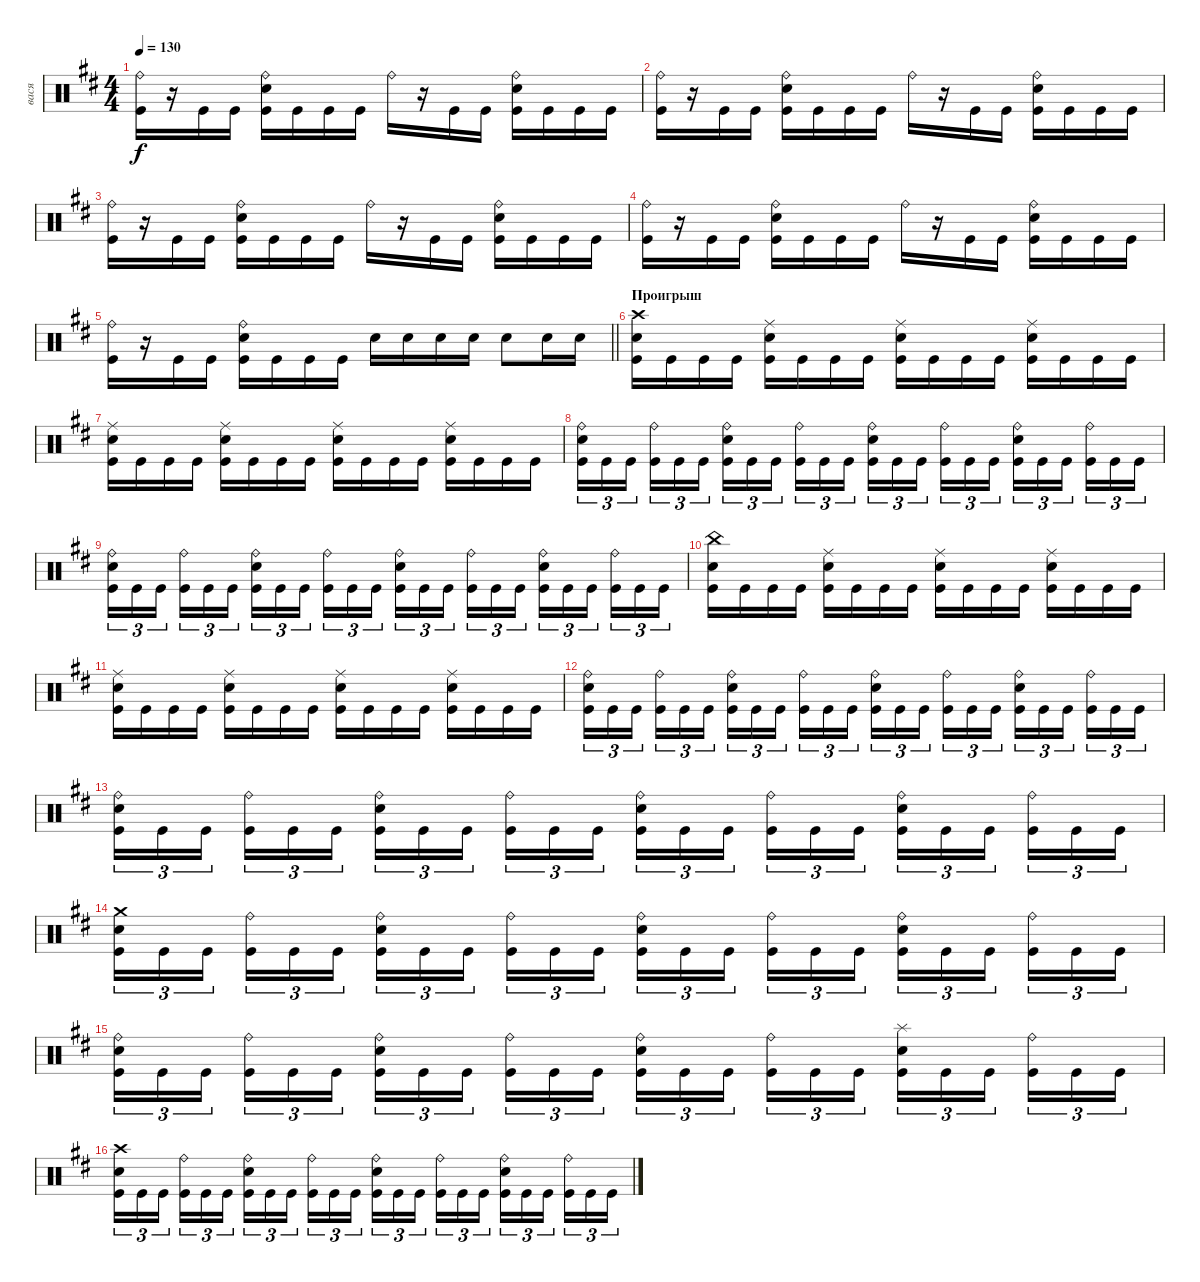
\track ("вася" "вася") {instrument percussion}
\staff {score}
\articulation defaults
\ts (4 4)
\tempo 130
\clef neutral
\ks bminor
("Ride (bell)" "Kick (hit)").16{dy f} r.16 "Kick (hit)".16 "Kick (hit)".16 ("Ride (bell)" "Electric Snare (hit)" "Kick (hit)").16 "Kick (hit)".16 "Kick (hit)".16 "Kick (hit)".16 "Ride (bell)".16 r.16 "Kick (hit)".16 "Kick (hit)".16 ("Ride (bell)" "Electric Snare (hit)" "Kick (hit)").16 "Kick (hit)".16 "Kick (hit)".16 "Kick (hit)".16 |
("Ride (bell)" "Kick (hit)").16 r.16 "Kick (hit)".16 "Kick (hit)".16 ("Ride (bell)" "Electric Snare (hit)" "Kick (hit)").16 "Kick (hit)".16 "Kick (hit)".16 "Kick (hit)".16 "Ride (bell)".16 r.16 "Kick (hit)".16 "Kick (hit)".16 ("Ride (bell)" "Electric Snare (hit)" "Kick (hit)").16 "Kick (hit)".16 "Kick (hit)".16 "Kick (hit)".16 |
("Ride (bell)" "Kick (hit)").16 r.16 "Kick (hit)".16 "Kick (hit)".16 ("Ride (bell)" "Electric Snare (hit)" "Kick (hit)").16 "Kick (hit)".16 "Kick (hit)".16 "Kick (hit)".16 "Ride (bell)".16 r.16 "Kick (hit)".16 "Kick (hit)".16 ("Ride (bell)" "Electric Snare (hit)" "Kick (hit)").16 "Kick (hit)".16 "Kick (hit)".16 "Kick (hit)".16 |
("Ride (bell)" "Kick (hit)").16 r.16 "Kick (hit)".16 "Kick (hit)".16 ("Ride (bell)" "Electric Snare (hit)" "Kick (hit)").16 "Kick (hit)".16 "Kick (hit)".16 "Kick (hit)".16 "Ride (bell)".16 r.16 "Kick (hit)".16 "Kick (hit)".16 ("Ride (bell)" "Electric Snare (hit)" "Kick (hit)").16 "Kick (hit)".16 "Kick (hit)".16 "Kick (hit)".16 |
\barLineRight lightlight
("Ride (bell)" "Kick (hit)").16 r.16 "Kick (hit)".16 "Kick (hit)".16 ("Ride (bell)" "Electric Snare (hit)" "Kick (hit)").16 "Kick (hit)".16 "Kick (hit)".16 "Kick (hit)".16 "Electric Snare (hit)".16 "Electric Snare (hit)".16 "Electric Snare (hit)".16 "Electric Snare (hit)".16 "Electric Snare (hit)".8 "Electric Snare (hit)".16 "Electric Snare (hit)".16 |
\section ("" "Проигрыш")
("Crash high (hit)" "Electric Snare (hit)" "Kick (hit)").16 "Kick (hit)".16 "Kick (hit)".16 "Kick (hit)".16 ("Ride (middle)" "Electric Snare (hit)" "Kick (hit)").16 "Kick (hit)".16 "Kick (hit)".16 "Kick (hit)".16 ("Ride (middle)" "Electric Snare (hit)" "Kick (hit)").16 "Kick (hit)".16 "Kick (hit)".16 "Kick (hit)".16 ("Ride (middle)" "Electric Snare (hit)" "Kick (hit)").16 "Kick (hit)".16 "Kick (hit)".16 "Kick (hit)".16 |
("Ride (middle)" "Electric Snare (hit)" "Kick (hit)").16 "Kick (hit)".16 "Kick (hit)".16 "Kick (hit)".16 ("Ride (middle)" "Electric Snare (hit)" "Kick (hit)").16 "Kick (hit)".16 "Kick (hit)".16 "Kick (hit)".16 ("Ride (middle)" "Electric Snare (hit)" "Kick (hit)").16 "Kick (hit)".16 "Kick (hit)".16 "Kick (hit)".16 ("Ride (middle)" "Electric Snare (hit)" "Kick (hit)").16 "Kick (hit)".16 "Kick (hit)".16 "Kick (hit)".16 |
("Ride (bell)" "Electric Snare (hit)" "Kick (hit)").16{tu (3 2)} "Kick (hit)".16{tu (3 2)} "Kick (hit)".16{tu (3 2) beam splitsecondary} ("Ride (bell)" "Kick (hit)").16{tu (3 2)} "Kick (hit)".16{tu (3 2)} "Kick (hit)".16{tu (3 2)} ("Ride (bell)" "Electric Snare (hit)" "Kick (hit)").16{tu (3 2)} "Kick (hit)".16{tu (3 2)} "Kick (hit)".16{tu (3 2) beam splitsecondary} ("Ride (bell)" "Kick (hit)").16{tu (3 2)} "Kick (hit)".16{tu (3 2)} "Kick (hit)".16{tu (3 2)} ("Ride (bell)" "Electric Snare (hit)" "Kick (hit)").16{tu (3 2)} "Kick (hit)".16{tu (3 2)} "Kick (hit)".16{tu (3 2) beam splitsecondary} ("Ride (bell)" "Kick (hit)").16{tu (3 2)} "Kick (hit)".16{tu (3 2)} "Kick (hit)".16{tu (3 2)} ("Ride (bell)" "Electric Snare (hit)" "Kick (hit)").16{tu (3 2)} "Kick (hit)".16{tu (3 2)} "Kick (hit)".16{tu (3 2) beam splitsecondary} ("Ride (bell)" "Kick (hit)").16{tu (3 2)} "Kick (hit)".16{tu (3 2)} "Kick (hit)".16{tu (3 2)} |
("Ride (bell)" "Electric Snare (hit)" "Kick (hit)").16{tu (3 2)} "Kick (hit)".16{tu (3 2)} "Kick (hit)".16{tu (3 2) beam splitsecondary} ("Ride (bell)" "Kick (hit)").16{tu (3 2)} "Kick (hit)".16{tu (3 2)} "Kick (hit)".16{tu (3 2)} ("Ride (bell)" "Electric Snare (hit)" "Kick (hit)").16{tu (3 2)} "Kick (hit)".16{tu (3 2)} "Kick (hit)".16{tu (3 2) beam splitsecondary} ("Ride (bell)" "Kick (hit)").16{tu (3 2)} "Kick (hit)".16{tu (3 2)} "Kick (hit)".16{tu (3 2)} ("Ride (bell)" "Electric Snare (hit)" "Kick (hit)").16{tu (3 2)} "Kick (hit)".16{tu (3 2)} "Kick (hit)".16{tu (3 2) beam splitsecondary} ("Ride (bell)" "Kick (hit)").16{tu (3 2)} "Kick (hit)".16{tu (3 2)} "Kick (hit)".16{tu (3 2)} ("Ride (bell)" "Electric Snare (hit)" "Kick (hit)").16{tu (3 2)} "Kick (hit)".16{tu (3 2)} "Kick (hit)".16{tu (3 2) beam splitsecondary} ("Ride (bell)" "Kick (hit)").16{tu (3 2)} "Kick (hit)".16{tu (3 2)} "Kick (hit)".16{tu (3 2)} |
("China (hit)" "Electric Snare (hit)" "Kick (hit)").16 "Kick (hit)".16 "Kick (hit)".16 "Kick (hit)".16 ("Ride (middle)" "Electric Snare (hit)" "Kick (hit)").16 "Kick (hit)".16 "Kick (hit)".16 "Kick (hit)".16 ("Ride (middle)" "Electric Snare (hit)" "Kick (hit)").16 "Kick (hit)".16 "Kick (hit)".16 "Kick (hit)".16 ("Ride (middle)" "Electric Snare (hit)" "Kick (hit)").16 "Kick (hit)".16 "Kick (hit)".16 "Kick (hit)".16 |
("Ride (middle)" "Electric Snare (hit)" "Kick (hit)").16 "Kick (hit)".16 "Kick (hit)".16 "Kick (hit)".16 ("Ride (middle)" "Electric Snare (hit)" "Kick (hit)").16 "Kick (hit)".16 "Kick (hit)".16 "Kick (hit)".16 ("Ride (middle)" "Electric Snare (hit)" "Kick (hit)").16 "Kick (hit)".16 "Kick (hit)".16 "Kick (hit)".16 ("Ride (middle)" "Electric Snare (hit)" "Kick (hit)").16 "Kick (hit)".16 "Kick (hit)".16 "Kick (hit)".16 |
("Ride (bell)" "Electric Snare (hit)" "Kick (hit)").16{tu (3 2)} "Kick (hit)".16{tu (3 2)} "Kick (hit)".16{tu (3 2) beam splitsecondary} ("Ride (bell)" "Kick (hit)").16{tu (3 2)} "Kick (hit)".16{tu (3 2)} "Kick (hit)".16{tu (3 2)} ("Ride (bell)" "Electric Snare (hit)" "Kick (hit)").16{tu (3 2)} "Kick (hit)".16{tu (3 2)} "Kick (hit)".16{tu (3 2) beam splitsecondary} ("Ride (bell)" "Kick (hit)").16{tu (3 2)} "Kick (hit)".16{tu (3 2)} "Kick (hit)".16{tu (3 2)} ("Ride (bell)" "Electric Snare (hit)" "Kick (hit)").16{tu (3 2)} "Kick (hit)".16{tu (3 2)} "Kick (hit)".16{tu (3 2) beam splitsecondary} ("Ride (bell)" "Kick (hit)").16{tu (3 2)} "Kick (hit)".16{tu (3 2)} "Kick (hit)".16{tu (3 2)} ("Ride (bell)" "Electric Snare (hit)" "Kick (hit)").16{tu (3 2)} "Kick (hit)".16{tu (3 2)} "Kick (hit)".16{tu (3 2) beam splitsecondary} ("Ride (bell)" "Kick (hit)").16{tu (3 2)} "Kick (hit)".16{tu (3 2)} "Kick (hit)".16{tu (3 2)} |
("Ride (bell)" "Electric Snare (hit)" "Kick (hit)").16{tu (3 2)} "Kick (hit)".16{tu (3 2)} "Kick (hit)".16{tu (3 2) beam splitsecondary} ("Ride (bell)" "Kick (hit)").16{tu (3 2)} "Kick (hit)".16{tu (3 2)} "Kick (hit)".16{tu (3 2)} ("Ride (bell)" "Electric Snare (hit)" "Kick (hit)").16{tu (3 2)} "Kick (hit)".16{tu (3 2)} "Kick (hit)".16{tu (3 2) beam splitsecondary} ("Ride (bell)" "Kick (hit)").16{tu (3 2)} "Kick (hit)".16{tu (3 2)} "Kick (hit)".16{tu (3 2)} ("Ride (bell)" "Electric Snare (hit)" "Kick (hit)").16{tu (3 2)} "Kick (hit)".16{tu (3 2)} "Kick (hit)".16{tu (3 2) beam splitsecondary} ("Ride (bell)" "Kick (hit)").16{tu (3 2)} "Kick (hit)".16{tu (3 2)} "Kick (hit)".16{tu (3 2)} ("Ride (bell)" "Electric Snare (hit)" "Kick (hit)").16{tu (3 2)} "Kick (hit)".16{tu (3 2)} "Kick (hit)".16{tu (3 2) beam splitsecondary} ("Ride (bell)" "Kick (hit)").16{tu (3 2)} "Kick (hit)".16{tu (3 2)} "Kick (hit)".16{tu (3 2)} |
("Crash medium (hit)" "Electric Snare (hit)" "Kick (hit)").16{tu (3 2)} "Kick (hit)".16{tu (3 2)} "Kick (hit)".16{tu (3 2) beam splitsecondary} ("Ride (bell)" "Kick (hit)").16{tu (3 2)} "Kick (hit)".16{tu (3 2)} "Kick (hit)".16{tu (3 2)} ("Ride (bell)" "Electric Snare (hit)" "Kick (hit)").16{tu (3 2)} "Kick (hit)".16{tu (3 2)} "Kick (hit)".16{tu (3 2) beam splitsecondary} ("Ride (bell)" "Kick (hit)").16{tu (3 2)} "Kick (hit)".16{tu (3 2)} "Kick (hit)".16{tu (3 2)} ("Ride (bell)" "Electric Snare (hit)" "Kick (hit)").16{tu (3 2)} "Kick (hit)".16{tu (3 2)} "Kick (hit)".16{tu (3 2) beam splitsecondary} ("Ride (bell)" "Kick (hit)").16{tu (3 2)} "Kick (hit)".16{tu (3 2)} "Kick (hit)".16{tu (3 2)} ("Ride (bell)" "Electric Snare (hit)" "Kick (hit)").16{tu (3 2)} "Kick (hit)".16{tu (3 2)} "Kick (hit)".16{tu (3 2) beam splitsecondary} ("Ride (bell)" "Kick (hit)").16{tu (3 2)} "Kick (hit)".16{tu (3 2)} "Kick (hit)".16{tu (3 2)} |
("Ride (bell)" "Electric Snare (hit)" "Kick (hit)").16{tu (3 2)} "Kick (hit)".16{tu (3 2)} "Kick (hit)".16{tu (3 2) beam splitsecondary} ("Ride (bell)" "Kick (hit)").16{tu (3 2)} "Kick (hit)".16{tu (3 2)} "Kick (hit)".16{tu (3 2)} ("Ride (bell)" "Electric Snare (hit)" "Kick (hit)").16{tu (3 2)} "Kick (hit)".16{tu (3 2)} "Kick (hit)".16{tu (3 2) beam splitsecondary} ("Ride (bell)" "Kick (hit)").16{tu (3 2)} "Kick (hit)".16{tu (3 2)} "Kick (hit)".16{tu (3 2)} ("Ride (bell)" "Electric Snare (hit)" "Kick (hit)").16{tu (3 2)} "Kick (hit)".16{tu (3 2)} "Kick (hit)".16{tu (3 2) beam splitsecondary} ("Ride (bell)" "Kick (hit)").16{tu (3 2)} "Kick (hit)".16{tu (3 2)} "Kick (hit)".16{tu (3 2)} ("Splash (hit)" "Electric Snare (hit)" "Kick (hit)").16{tu (3 2)} "Kick (hit)".16{tu (3 2)} "Kick (hit)".16{tu (3 2) beam splitsecondary} ("Ride (bell)" "Kick (hit)").16{tu (3 2)} "Kick (hit)".16{tu (3 2)} "Kick (hit)".16{tu (3 2)} |
("Crash high (hit)" "Electric Snare (hit)" "Kick (hit)").16{tu (3 2)} "Kick (hit)".16{tu (3 2)} "Kick (hit)".16{tu (3 2) beam splitsecondary} ("Ride (bell)" "Kick (hit)").16{tu (3 2)} "Kick (hit)".16{tu (3 2)} "Kick (hit)".16{tu (3 2)} ("Ride (bell)" "Electric Snare (hit)" "Kick (hit)").16{tu (3 2)} "Kick (hit)".16{tu (3 2)} "Kick (hit)".16{tu (3 2) beam splitsecondary} ("Ride (bell)" "Kick (hit)").16{tu (3 2)} "Kick (hit)".16{tu (3 2)} "Kick (hit)".16{tu (3 2)} ("Ride (bell)" "Electric Snare (hit)" "Kick (hit)").16{tu (3 2)} "Kick (hit)".16{tu (3 2)} "Kick (hit)".16{tu (3 2) beam splitsecondary} ("Ride (bell)" "Kick (hit)").16{tu (3 2)} "Kick (hit)".16{tu (3 2)} "Kick (hit)".16{tu (3 2)} ("Ride (bell)" "Electric Snare (hit)" "Kick (hit)").16{tu (3 2)} "Kick (hit)".16{tu (3 2)} "Kick (hit)".16{tu (3 2) beam splitsecondary} ("Ride (bell)" "Kick (hit)").16{tu (3 2)} "Kick (hit)".16{tu (3 2)} "Kick (hit)".16{tu (3 2)}
